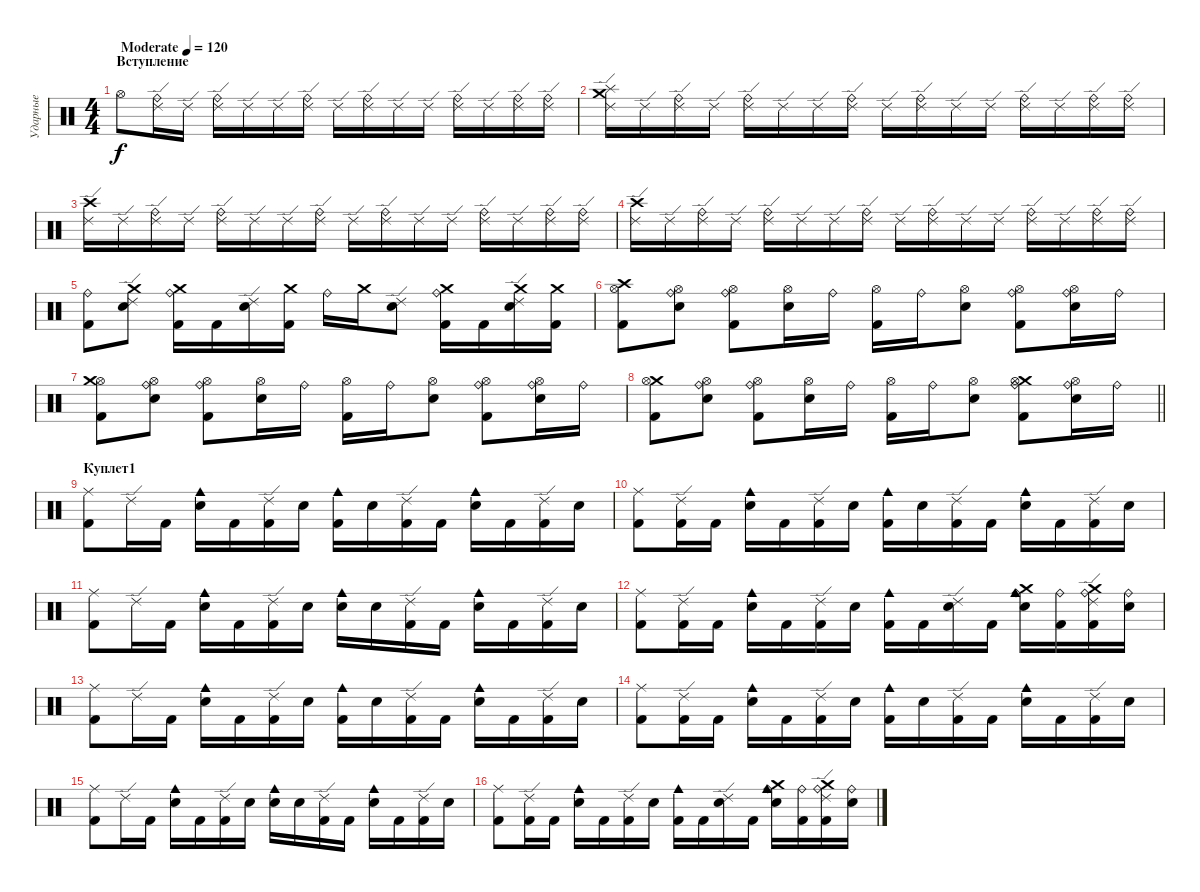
\track ("Ударные" "Ударные") {instrument percussion}
\staff {score}
\articulation defaults
\ts (4 4)
\section ("" "Вступление")
\tempo (120 "Moderate")
\clef neutral
\ks c "Hi-Hat (open)".8{dy f}
("Ride (bell)" "Ride (edge) 2").16 "Ride (edge) 2".16 ("Ride (bell)" "Ride (edge) 2").16 "Ride (edge) 2".16 "Ride (edge) 2".16 ("Ride (bell)" "Ride (edge) 2").16 "Ride (edge) 2".16 ("Ride (bell)" "Ride (edge) 2").16 "Ride (edge) 2".16 "Ride (edge) 2".16 ("Ride (bell)" "Ride (edge) 2").16 "Ride (edge) 2".16 ("Ride (bell)" "Ride (edge) 2").16 ("Ride (bell)" "Ride (edge) 2").16 |
("Crash medium (hit)" "Splash (hit)" "Ride (edge) 2").16 "Ride (edge) 2".16 ("Ride (bell)" "Ride (edge) 2").16 "Ride (edge) 2".16 ("Ride (bell)" "Ride (edge) 2").16 "Ride (edge) 2".16 "Ride (edge) 2".16 ("Ride (bell)" "Ride (edge) 2").16 "Ride (edge) 2".16 ("Ride (bell)" "Ride (edge) 2").16 "Ride (edge) 2".16 "Ride (edge) 2".16 ("Ride (bell)" "Ride (edge) 2").16 "Ride (edge) 2".16 ("Ride (bell)" "Ride (edge) 2").16 ("Ride (bell)" "Ride (edge) 2").16 |
("Crash high (hit)" "Ride (edge) 2").16 "Ride (edge) 2".16 ("Ride (bell)" "Ride (edge) 2").16 "Ride (edge) 2".16 ("Ride (bell)" "Ride (edge) 2").16 "Ride (edge) 2".16 "Ride (edge) 2".16 ("Ride (bell)" "Ride (edge) 2").16 "Ride (edge) 2".16 ("Ride (bell)" "Ride (edge) 2").16 "Ride (edge) 2".16 "Ride (edge) 2".16 ("Ride (bell)" "Ride (edge) 2").16 "Ride (edge) 2".16 ("Ride (bell)" "Ride (edge) 2").16 ("Ride (bell)" "Ride (edge) 2").16 |
("Crash high (hit)" "Ride (edge) 2").16 "Ride (edge) 2".16 ("Ride (bell)" "Ride (edge) 2").16 "Ride (edge) 2".16 ("Ride (bell)" "Ride (edge) 2").16 "Ride (edge) 2".16 "Ride (edge) 2".16 ("Ride (bell)" "Ride (edge) 2").16 "Ride (edge) 2".16 ("Ride (bell)" "Ride (edge) 2").16 "Ride (edge) 2".16 "Ride (edge) 2".16 ("Ride (bell)" "Ride (edge) 2").16 "Ride (edge) 2".16 ("Ride (bell)" "Ride (edge) 2").16 ("Ride (bell)" "Ride (edge) 2").16 |
("Ride (bell)" "Kick (hit) 2").8 ("Ride (edge) 2" "Electric Snare (hit)" "Crash medium (hit)").8 ("Ride (bell)" "Kick (hit) 2" "Crash medium (hit)").16 "Kick (hit) 2".16 ("Ride (edge) 2" "Electric Snare (hit)").16 ("Kick (hit) 2" "Crash medium (hit)").16 "Ride (bell)".16 "Crash medium (hit)".16 ("Ride (edge) 2" "Electric Snare (hit)").8 ("Ride (bell)" "Kick (hit) 2" "Crash medium (hit)").16 "Kick (hit) 2".16 ("Ride (edge) 2" "Electric Snare (hit)" "Crash medium (hit)").16 ("Kick (hit) 2" "Crash medium (hit)").16 |
("Crash high (hit)" "Kick (hit) 2" "Hi-Hat (open)").8 ("Ride (bell)" "Electric Snare (hit)" "Hi-Hat (open)").8 ("Ride (bell)" "Kick (hit) 2" "Hi-Hat (open)").8 ("Electric Snare (hit)" "Hi-Hat (open)").16 "Ride (bell)".16 ("Kick (hit) 2" "Hi-Hat (open)").16 "Ride (bell)".16 ("Electric Snare (hit)" "Hi-Hat (open)").8 ("Kick (hit) 2" "Ride (bell)" "Hi-Hat (open)").8 ("Electric Snare (hit)" "Hi-Hat (open)" "Ride (bell)").16 "Ride (bell)".16 |
("Hi-Hat (open)" "Crash medium (hit)" "Kick (hit) 2").8 ("Hi-Hat (open)" "Electric Snare (hit)" "Ride (bell)").8 ("Hi-Hat (open)" "Kick (hit) 2" "Ride (bell)").8 ("Hi-Hat (open)" "Electric Snare (hit)").16 "Ride (bell)".16 ("Kick (hit) 2" "Hi-Hat (open)").16 "Ride (bell)".16 ("Electric Snare (hit)" "Hi-Hat (open)").8 ("Kick (hit) 2" "Hi-Hat (open)" "Ride (bell)").8 ("Electric Snare (hit)" "Hi-Hat (open)" "Ride (bell)").16 "Ride (bell)".16 |
\barLineRight lightlight
("Crash medium (hit)" "Kick (hit) 2" "Hi-Hat (open)").8 ("Electric Snare (hit)" "Hi-Hat (open)" "Ride (bell)").8 ("Kick (hit) 2" "Hi-Hat (open)" "Ride (bell)").8 ("Electric Snare (hit)" "Hi-Hat (open)").16 "Ride (bell)".16 ("Kick (hit) 2" "Hi-Hat (open)").16 "Ride (bell)".16 ("Electric Snare (hit)" "Hi-Hat (open)").8 ("Kick (hit) 2" "Crash medium (hit)" "Hi-Hat (open)" "Ride (bell)").8 ("Electric Snare (hit)" "Hi-Hat (open)" "Ride (bell)").16 "Ride (bell)".16 |
\section ("" "Куплет1")
("Ride (middle)" "Kick (hit) 2").8 "Ride (edge) 2".16 "Kick (hit) 2".16 ("Cowbell medium (hit)" "Electric Snare (hit)").16 "Kick (hit) 2".16 ("Ride (edge) 2" "Kick (hit) 2").16 "Electric Snare (hit)".16 ("Cowbell medium (hit)" "Kick (hit) 2").16 "Electric Snare (hit)".16 ("Ride (edge) 2" "Kick (hit) 2").16 "Kick (hit) 2".16 ("Cowbell medium (hit)" "Electric Snare (hit)").16 "Kick (hit) 2".16 ("Ride (edge) 2" "Kick (hit) 2").16 "Electric Snare (hit)".16 |
("Kick (hit) 2" "Ride (middle)").8 ("Kick (hit) 2" "Ride (edge) 2").16 "Kick (hit) 2".16 ("Electric Snare (hit)" "Cowbell medium (hit)").16 "Kick (hit) 2".16 ("Kick (hit) 2" "Ride (edge) 2").16 "Electric Snare (hit)".16 ("Kick (hit) 2" "Cowbell medium (hit)").16 "Electric Snare (hit)".16 ("Kick (hit) 2" "Ride (edge) 2").16 "Kick (hit) 2".16 ("Electric Snare (hit)" "Cowbell medium (hit)").16 "Kick (hit) 2".16 ("Kick (hit) 2" "Ride (edge) 2").16 "Electric Snare (hit)".16 |
("Ride (middle)" "Kick (hit) 2").8 "Ride (edge) 2".16 "Kick (hit) 2".16 ("Cowbell medium (hit)" "Electric Snare (hit)").16 "Kick (hit) 2".16 ("Ride (edge) 2" "Kick (hit) 2").16 "Electric Snare (hit)".16 ("Cowbell medium (hit)" "Electric Snare (hit)").16 "Electric Snare (hit)".16 ("Ride (edge) 2" "Kick (hit) 2").16 "Kick (hit) 2".16 ("Cowbell medium (hit)" "Electric Snare (hit)").16 "Kick (hit) 2".16 ("Ride (edge) 2" "Kick (hit) 2").16 "Electric Snare (hit)".16 |
("Ride (middle)" "Kick (hit) 2").8 ("Ride (edge) 2" "Kick (hit) 2").16 "Kick (hit) 2".16 ("Cowbell medium (hit)" "Electric Snare (hit)").16 "Kick (hit) 2".16 ("Ride (edge) 2" "Kick (hit) 2").16 "Electric Snare (hit)".16 ("Cowbell medium (hit)" "Kick (hit) 2").16 "Kick (hit) 2".16 ("Electric Snare (hit)" "Ride (edge) 2").16 "Kick (hit) 2".16 ("Ride (bell)" "Crash medium (hit)" "Cowbell medium (hit)" "Electric Snare (hit)").16 ("Ride (bell)" "Kick (hit) 2").16 ("Ride (bell)" "Crash medium (hit)" "Ride (edge) 2" "Kick (hit) 2").16 ("Ride (bell)" "Electric Snare (hit)").16 |
("Ride (middle)" "Kick (hit) 2").8 "Ride (edge) 2".16 "Kick (hit) 2".16 ("Cowbell medium (hit)" "Electric Snare (hit)").16 "Kick (hit) 2".16 ("Ride (edge) 2" "Kick (hit) 2").16 "Electric Snare (hit)".16 ("Cowbell medium (hit)" "Kick (hit) 2").16 "Electric Snare (hit)".16 ("Ride (edge) 2" "Kick (hit) 2").16 "Kick (hit) 2".16 ("Cowbell medium (hit)" "Electric Snare (hit)").16 "Kick (hit) 2".16 ("Ride (edge) 2" "Kick (hit) 2").16 "Electric Snare (hit)".16 |
("Kick (hit) 2" "Ride (middle)").8 ("Kick (hit) 2" "Ride (edge) 2").16 "Kick (hit) 2".16 ("Electric Snare (hit)" "Cowbell medium (hit)").16 "Kick (hit) 2".16 ("Kick (hit) 2" "Ride (edge) 2").16 "Electric Snare (hit)".16 ("Kick (hit) 2" "Cowbell medium (hit)").16 "Electric Snare (hit)".16 ("Kick (hit) 2" "Ride (edge) 2").16 "Kick (hit) 2".16 ("Electric Snare (hit)" "Cowbell medium (hit)").16 "Kick (hit) 2".16 ("Kick (hit) 2" "Ride (edge) 2").16 "Electric Snare (hit)".16 |
("Ride (middle)" "Kick (hit) 2").8 "Ride (edge) 2".16 "Kick (hit) 2".16 ("Cowbell medium (hit)" "Electric Snare (hit)").16 "Kick (hit) 2".16 ("Ride (edge) 2" "Kick (hit) 2").16 "Electric Snare (hit)".16 ("Cowbell medium (hit)" "Electric Snare (hit)").16 "Electric Snare (hit)".16 ("Ride (edge) 2" "Kick (hit) 2").16 "Kick (hit) 2".16 ("Cowbell medium (hit)" "Electric Snare (hit)").16 "Kick (hit) 2".16 ("Ride (edge) 2" "Kick (hit) 2").16 "Electric Snare (hit)".16 |
("Ride (middle)" "Kick (hit) 2").8 ("Ride (edge) 2" "Kick (hit) 2").16 "Kick (hit) 2".16 ("Cowbell medium (hit)" "Electric Snare (hit)").16 "Kick (hit) 2".16 ("Ride (edge) 2" "Kick (hit) 2").16 "Electric Snare (hit)".16 ("Cowbell medium (hit)" "Kick (hit) 2").16 "Kick (hit) 2".16 ("Electric Snare (hit)" "Ride (edge) 2").16 "Kick (hit) 2".16 ("Ride (bell)" "Crash medium (hit)" "Cowbell medium (hit)" "Electric Snare (hit)").16 ("Ride (bell)" "Kick (hit) 2").16 ("Ride (bell)" "Crash medium (hit)" "Ride (edge) 2" "Kick (hit) 2").16 ("Ride (bell)" "Electric Snare (hit)").16
